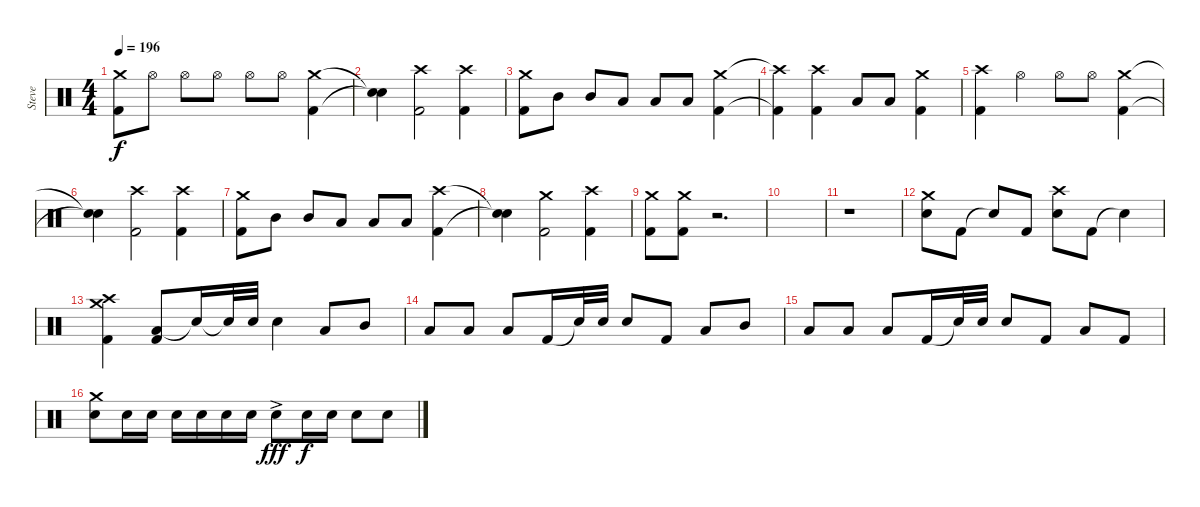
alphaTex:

\track ("Steve" "Steve") {instrument percussion}
\staff {score}
\articulation defaults
\ts (4 4)
\tempo 196
\clef neutral
\ks c
("Crash medium (hit)" "Kick (hit) 2").8{dy f} "Hi-Hat (open)".8 "Hi-Hat (open)".8 "Hi-Hat (open)".8 "Hi-Hat (open)".8 "Hi-Hat (open)".8 ("Crash medium (hit)" "Kick (hit) 2").4 |
("Snare (hit)"{t} "Snare (hit)"{t}).4 ("Crash high (hit)" "Kick (hit) 2").2 ("Crash high (hit)" "Kick (hit) 2").4 |
("Crash medium (hit)" "Kick (hit) 2").8 "Mid Tom (hit)".8 "Mid Tom (hit)".8 "Low Tom (hit)".8 "Low Tom (hit)".8 "Low Tom (hit)".8 ("Crash medium (hit)" "Kick (hit) 2").4 |
("Crash high (hit)"{t} "Kick (hit) 2"{t}).4 ("Crash high (hit)" "Kick (hit) 2").4 "Low Tom (hit)".8 "Low Tom (hit)".8 ("Crash medium (hit)" "Kick (hit) 2").4 |
("Crash high (hit)" "Kick (hit) 2").4 "Hi-Hat (open)".4 "Hi-Hat (open)".8 "Hi-Hat (open)".8 ("Crash medium (hit)" "Kick (hit) 2").4 |
("Snare (hit)"{t} "Snare (hit)"{t}).4 ("Crash high (hit)" "Kick (hit) 2").2 ("Crash high (hit)" "Kick (hit) 2").4 |
("Crash medium (hit)" "Kick (hit) 2").8 "Mid Tom (hit)".8 "Mid Tom (hit)".8 "Low Tom (hit)".8 "Low Tom (hit)".8 "Low Tom (hit)".8 ("Crash high (hit)" "Kick (hit) 2").4 |
("Snare (hit)"{t} "Snare (hit)"{t}).4 ("Crash medium (hit)" "Kick (hit) 2").2 ("Crash high (hit)" "Kick (hit) 2").4 |
("Crash medium (hit)" "Kick (hit) 2").8 ("Crash medium (hit)" "Kick (hit) 2").8 r.2{d} |
|
r.1 |
("Crash medium (hit)" "Electric Snare (hit)").8 "Kick (hit) 2".8 "Snare (hit)"{t}.8 "Kick (hit) 2".8 ("Crash high (hit)" "Electric Snare (hit)").8 "Kick (hit) 2".8 "Snare (hit)"{t}.4 |
("Crash medium (hit)" "Crash high (hit)" "Kick (hit) 2").4 ("Low Tom (hit)" "Kick (hit) 2").8 "Snare (hit)"{t}.16 "Snare (hit)"{t}.32 "Electric Snare (hit)".32 "Electric Snare (hit)".4 "Low Tom (hit)".8 "Mid Tom (hit)".8 |
"Low Tom (hit)".8 "Low Tom (hit)".8 "Low Tom (hit)".8 "Kick (hit) 2".16 "Snare (hit)"{t}.32 "Electric Snare (hit)".32 "Electric Snare (hit)".8 "Kick (hit) 2".8 "Low Tom (hit)".8 "Mid Tom (hit)".8 |
"Low Tom (hit)".8 "Low Tom (hit)".8 "Low Tom (hit)".8 "Kick (hit) 2".16 "Snare (hit)"{t}.32 "Electric Snare (hit)".32 "Electric Snare (hit)".8 "Kick (hit) 2".8 "Low Tom (hit)".8 "Kick (hit) 2".8 |
("Crash medium (hit)" "Electric Snare (hit)").8 "Electric Snare (hit)".16 "Electric Snare (hit)".16 "Electric Snare (hit)".16 "Electric Snare (hit)".16 "Electric Snare (hit)".16 "Electric Snare (hit)".16 "Electric Snare (hit)"{ac}.8{dy fff} "Electric Snare (hit)".16{dy f} "Electric Snare (hit)".16 "Electric Snare (hit)".8 "Electric Snare (hit)".8
